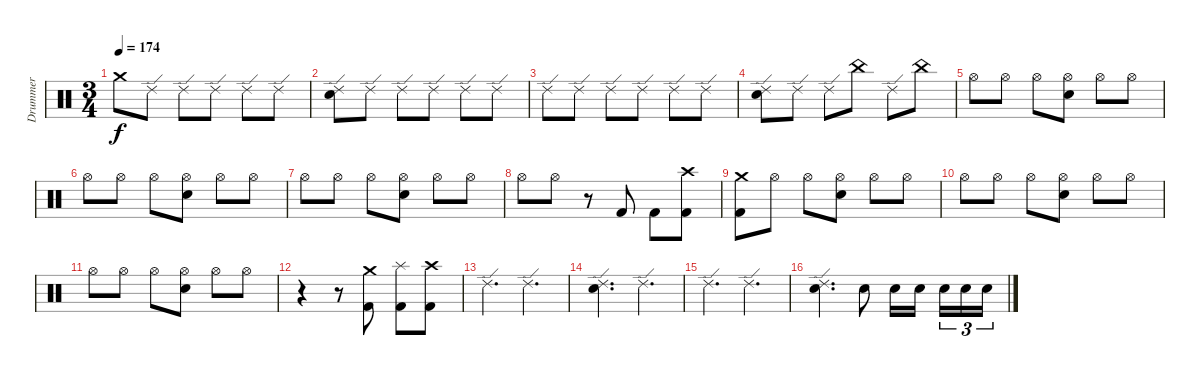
\track ("Drummer" "Drummer") {instrument percussion}
\staff {score}
\articulation defaults
\ts (3 4)
\tempo 174
\clef neutral
\ks c "Crash medium (hit)".8{dy f} "Ride (edge) 2".8 "Ride (edge) 2".8 "Ride (edge) 2".8 "Ride (edge) 2".8 "Ride (edge) 2".8
|
("Ride (edge) 2" "Electric Snare (hit)").8 "Ride (edge) 2".8 "Ride (edge) 2".8 "Ride (edge) 2".8 "Ride (edge) 2".8 "Ride (edge) 2".8 |
"Ride (edge) 2".8 "Ride (edge) 2".8 "Ride (edge) 2".8 "Ride (edge) 2".8 "Ride (edge) 2".8 "Ride (edge) 2".8 |
("Ride (edge) 2" "Electric Snare (hit)").8 "Ride (edge) 2".8 "Ride (edge) 2".8 "China (hit)".8 "Ride (edge) 2".8 "China (hit)".8 |
"Hi-Hat (open)".8 "Hi-Hat (open)".8 "Hi-Hat (open)".8 ("Hi-Hat (open)" "Electric Snare (hit)").8 "Hi-Hat (open)".8 "Hi-Hat (open)".8 |
"Hi-Hat (open)".8 "Hi-Hat (open)".8 "Hi-Hat (open)".8 ("Hi-Hat (open)" "Electric Snare (hit)").8 "Hi-Hat (open)".8 "Hi-Hat (open)".8 |
"Hi-Hat (open)".8 "Hi-Hat (open)".8 "Hi-Hat (open)".8 ("Hi-Hat (open)" "Electric Snare (hit)").8 "Hi-Hat (open)".8 "Hi-Hat (open)".8 |
"Hi-Hat (open)".8 "Hi-Hat (open)".8 r.8 "Kick (hit) 2".8 "Kick (hit) 2".8 ("Crash high (hit)" "Kick (hit) 2").8 |
("Crash medium (hit)" "Kick (hit) 2").8 "Hi-Hat (open)".8 "Hi-Hat (open)".8 ("Hi-Hat (open)" "Electric Snare (hit)").8 "Hi-Hat (open)".8 "Hi-Hat (open)".8 |
"Hi-Hat (open)".8 "Hi-Hat (open)".8 "Hi-Hat (open)".8 ("Hi-Hat (open)" "Electric Snare (hit)").8 "Hi-Hat (open)".8 "Hi-Hat (open)".8 |
"Hi-Hat (open)".8 "Hi-Hat (open)".8 "Hi-Hat (open)".8 ("Hi-Hat (open)" "Electric Snare (hit)").8 "Hi-Hat (open)".8 "Hi-Hat (open)".8 |
r.4 r.8 ("Crash medium (hit)" "Kick (hit) 2").8 ("Splash (hit)" "Kick (hit) 2").8 ("Crash high (hit)" "Kick (hit) 2").8 |
"Ride (edge) 2".4{d} "Ride (edge) 2".4{d} |
("Ride (edge) 2" "Electric Snare (hit)").4{d} "Ride (edge) 2".4{d} |
"Ride (edge) 2".4{d} "Ride (edge) 2".4{d} |
("Ride (edge) 2" "Electric Snare (hit)").4{d} "Electric Snare (hit)".8 "Electric Snare (hit)".16 "Electric Snare (hit)".16{beam splitsecondary} "Electric Snare (hit)".16{tu (3 2)} "Electric Snare (hit)".16{tu (3 2)} "Electric Snare (hit)".16{tu (3 2)}
